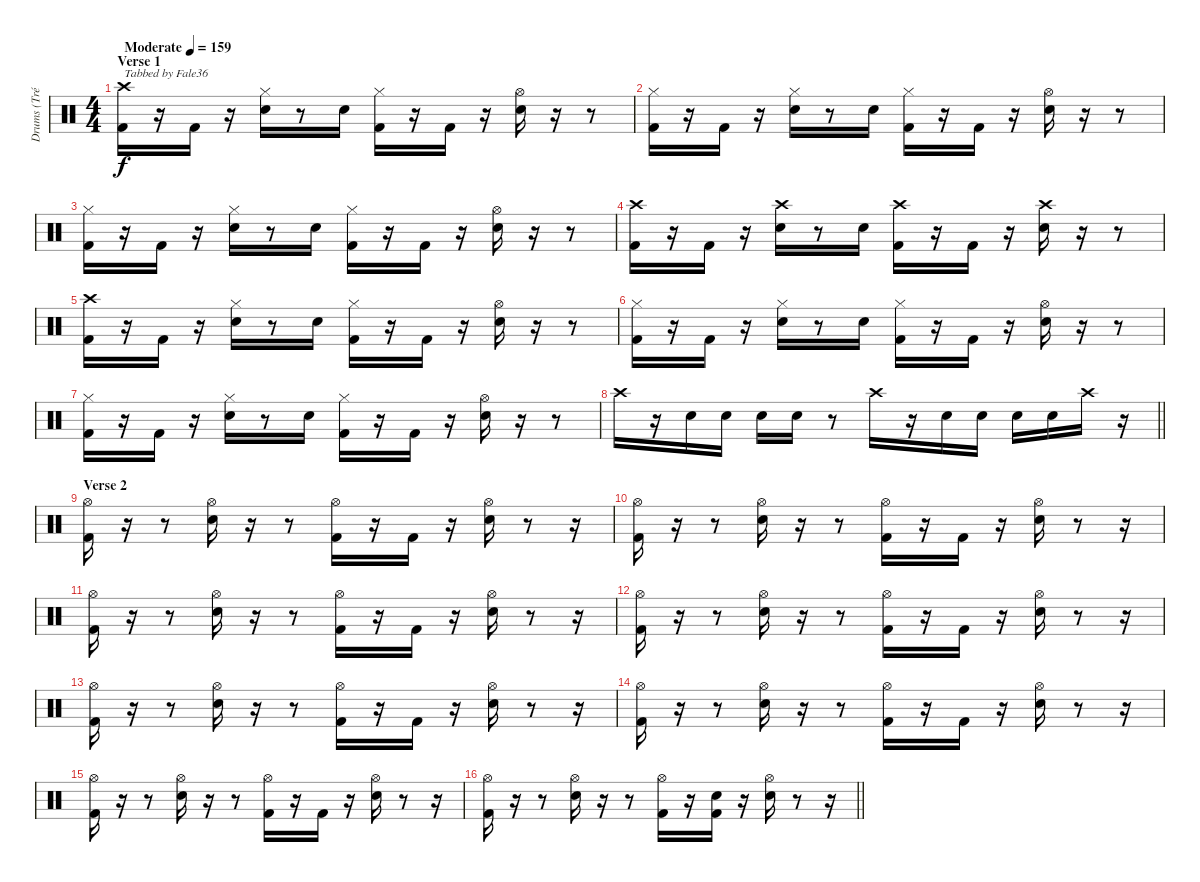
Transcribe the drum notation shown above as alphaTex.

\track ("Drums (Tré Cool)" "Drums (Tré") {instrument percussion}
\staff {score}
\articulation defaults
\ts (4 4)
\section ("" "Verse 1")
\tempo (159 "Moderate")
\clef neutral
\ks c
("Crash high (hit)" "Kick (hit) 2").16{txt "Tabbed by Fale36" dy f} r.16 "Kick (hit) 2".16 r.16 ("Hi-Hat (closed)" "Electric Snare (hit)").16 r.8 "Electric Snare (hit)".16 ("Hi-Hat (closed)" "Kick (hit) 2").16 r.16 "Kick (hit) 2".16 r.16 ("Hi-Hat (open)" "Electric Snare (hit)").16 r.16 r.8 |
("Hi-Hat (closed)" "Kick (hit) 2").16 r.16 "Kick (hit) 2".16 r.16 ("Hi-Hat (closed)" "Electric Snare (hit)").16 r.8 "Electric Snare (hit)".16 ("Hi-Hat (closed)" "Kick (hit) 2").16 r.16 "Kick (hit) 2".16 r.16 ("Hi-Hat (open)" "Electric Snare (hit)").16 r.16 r.8 |
("Hi-Hat (closed)" "Kick (hit) 2").16 r.16 "Kick (hit) 2".16 r.16 ("Hi-Hat (closed)" "Electric Snare (hit)").16 r.8 "Electric Snare (hit)".16 ("Hi-Hat (closed)" "Kick (hit) 2").16 r.16 "Kick (hit) 2".16 r.16 ("Hi-Hat (open)" "Electric Snare (hit)").16 r.16 r.8 |
("Crash high (hit)" "Kick (hit) 2").16 r.16 "Kick (hit) 2".16 r.16 ("Crash high (hit)" "Electric Snare (hit)").16 r.8 "Electric Snare (hit)".16 ("Crash high (hit)" "Kick (hit) 2").16 r.16 "Kick (hit) 2".16 r.16 ("Crash high (hit)" "Electric Snare (hit)").16 r.16 r.8 |
("Crash high (hit)" "Kick (hit) 2").16 r.16 "Kick (hit) 2".16 r.16 ("Hi-Hat (closed)" "Electric Snare (hit)").16 r.8 "Electric Snare (hit)".16 ("Hi-Hat (closed)" "Kick (hit) 2").16 r.16 "Kick (hit) 2".16 r.16 ("Hi-Hat (open)" "Electric Snare (hit)").16 r.16 r.8 |
("Hi-Hat (closed)" "Kick (hit) 2").16 r.16 "Kick (hit) 2".16 r.16 ("Hi-Hat (closed)" "Electric Snare (hit)").16 r.8 "Electric Snare (hit)".16 ("Hi-Hat (closed)" "Kick (hit) 2").16 r.16 "Kick (hit) 2".16 r.16 ("Hi-Hat (open)" "Electric Snare (hit)").16 r.16 r.8 |
("Hi-Hat (closed)" "Kick (hit) 2").16 r.16 "Kick (hit) 2".16 r.16 ("Hi-Hat (closed)" "Electric Snare (hit)").16 r.8 "Electric Snare (hit)".16 ("Hi-Hat (closed)" "Kick (hit) 2").16 r.16 "Kick (hit) 2".16 r.16 ("Hi-Hat (open)" "Electric Snare (hit)").16 r.16 r.8 |
\barLineRight lightlight "Crash high (hit)".16
r.16 "Electric Snare (hit)".16 "Electric Snare (hit)".16 "Electric Snare (hit)".16 "Electric Snare (hit)".16 r.8 "Crash high (hit)".16 r.16 "Electric Snare (hit)".16 "Electric Snare (hit)".16 "Electric Snare (hit)".16 "Electric Snare (hit)".16 "Crash high (hit)".16 r.16 |
\section ("" "Verse 2")
("Hi-Hat (open)" "Kick (hit) 2").16 r.16 r.8 ("Hi-Hat (open)" "Electric Snare (hit)").16 r.16 r.8 ("Hi-Hat (open)" "Kick (hit) 2").16 r.16 "Kick (hit) 2".16 r.16 ("Hi-Hat (open)" "Electric Snare (hit)").16 r.8 r.16 |
("Hi-Hat (open)" "Kick (hit) 2").16 r.16 r.8 ("Hi-Hat (open)" "Electric Snare (hit)").16 r.16 r.8 ("Hi-Hat (open)" "Kick (hit) 2").16 r.16 "Kick (hit) 2".16 r.16 ("Hi-Hat (open)" "Electric Snare (hit)").16 r.8 r.16 |
("Hi-Hat (open)" "Kick (hit) 2").16 r.16 r.8 ("Hi-Hat (open)" "Electric Snare (hit)").16 r.16 r.8 ("Hi-Hat (open)" "Kick (hit) 2").16 r.16 "Kick (hit) 2".16 r.16 ("Hi-Hat (open)" "Electric Snare (hit)").16 r.8 r.16 |
("Hi-Hat (open)" "Kick (hit) 2").16 r.16 r.8 ("Hi-Hat (open)" "Electric Snare (hit)").16 r.16 r.8 ("Hi-Hat (open)" "Kick (hit) 2").16 r.16 "Kick (hit) 2".16 r.16 ("Hi-Hat (open)" "Electric Snare (hit)").16 r.8 r.16 |
("Hi-Hat (open)" "Kick (hit) 2").16 r.16 r.8 ("Hi-Hat (open)" "Electric Snare (hit)").16 r.16 r.8 ("Hi-Hat (open)" "Kick (hit) 2").16 r.16 "Kick (hit) 2".16 r.16 ("Hi-Hat (open)" "Electric Snare (hit)").16 r.8 r.16 |
("Hi-Hat (open)" "Kick (hit) 2").16 r.16 r.8 ("Hi-Hat (open)" "Electric Snare (hit)").16 r.16 r.8 ("Hi-Hat (open)" "Kick (hit) 2").16 r.16 "Kick (hit) 2".16 r.16 ("Hi-Hat (open)" "Electric Snare (hit)").16 r.8 r.16 |
("Hi-Hat (open)" "Kick (hit) 2").16 r.16 r.8 ("Hi-Hat (open)" "Electric Snare (hit)").16 r.16 r.8 ("Hi-Hat (open)" "Kick (hit) 2").16 r.16 "Kick (hit) 2".16 r.16 ("Hi-Hat (open)" "Electric Snare (hit)").16 r.8 r.16 |
\barLineRight lightlight
("Hi-Hat (open)" "Kick (hit) 2").16 r.16 r.8 ("Hi-Hat (open)" "Electric Snare (hit)").16 r.16 r.8 ("Hi-Hat (open)" "Kick (hit) 2").16 r.16 ("Electric Snare (hit)" "Kick (hit) 2").16 r.16 ("Hi-Hat (open)" "Electric Snare (hit)").16 r.8 r.16
